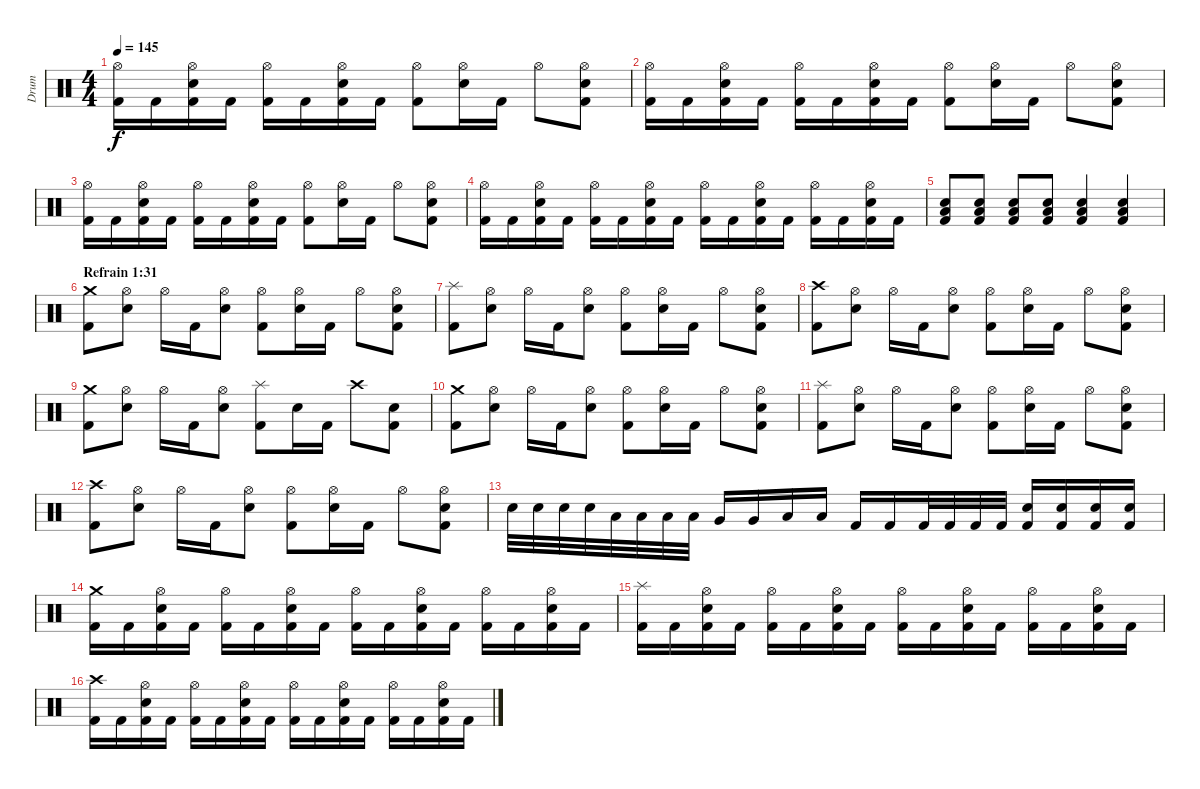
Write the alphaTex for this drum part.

\track ("Drum" "Drum") {instrument percussion}
\staff {score}
\articulation defaults
\ts (4 4)
\tempo 145
\clef neutral
\ks c
("Hi-Hat (open)" "Kick (hit) 2").16{dy f} "Kick (hit) 2".16 ("Hi-Hat (open)" "Snare (hit) 2" "Kick (hit) 2").16 "Kick (hit) 2".16 ("Hi-Hat (open)" "Kick (hit) 2").16 "Kick (hit) 2".16 ("Hi-Hat (open)" "Snare (hit) 2" "Kick (hit) 2").16 "Kick (hit) 2".16 ("Hi-Hat (open)" "Kick (hit) 2").8 ("Hi-Hat (open)" "Snare (hit) 2").16 "Kick (hit) 2".16 "Hi-Hat (open)".8 ("Hi-Hat (open)" "Snare (hit) 2" "Kick (hit) 2").8 |
("Hi-Hat (open)" "Kick (hit) 2").16 "Kick (hit) 2".16 ("Hi-Hat (open)" "Snare (hit) 2" "Kick (hit) 2").16 "Kick (hit) 2".16 ("Hi-Hat (open)" "Kick (hit) 2").16 "Kick (hit) 2".16 ("Hi-Hat (open)" "Snare (hit) 2" "Kick (hit) 2").16 "Kick (hit) 2".16 ("Hi-Hat (open)" "Kick (hit) 2").8 ("Hi-Hat (open)" "Snare (hit) 2").16 "Kick (hit) 2".16 "Hi-Hat (open)".8 ("Hi-Hat (open)" "Snare (hit) 2" "Kick (hit) 2").8 |
("Hi-Hat (open)" "Kick (hit) 2").16 "Kick (hit) 2".16 ("Hi-Hat (open)" "Snare (hit) 2" "Kick (hit) 2").16 "Kick (hit) 2".16 ("Hi-Hat (open)" "Kick (hit) 2").16 "Kick (hit) 2".16 ("Hi-Hat (open)" "Snare (hit) 2" "Kick (hit) 2").16 "Kick (hit) 2".16 ("Hi-Hat (open)" "Kick (hit) 2").8 ("Hi-Hat (open)" "Snare (hit) 2").16 "Kick (hit) 2".16 "Hi-Hat (open)".8 ("Hi-Hat (open)" "Snare (hit) 2" "Kick (hit) 2").8 |
("Hi-Hat (open)" "Kick (hit) 2").16 "Kick (hit) 2".16 ("Hi-Hat (open)" "Snare (hit) 2" "Kick (hit) 2").16 "Kick (hit) 2".16 ("Hi-Hat (open)" "Kick (hit) 2").16 "Kick (hit) 2".16 ("Hi-Hat (open)" "Snare (hit) 2" "Kick (hit) 2").16 "Kick (hit) 2".16 ("Hi-Hat (open)" "Kick (hit) 2").16 "Kick (hit) 2".16 ("Hi-Hat (open)" "Snare (hit) 2" "Kick (hit) 2").16 "Kick (hit) 2".16 ("Hi-Hat (open)" "Kick (hit) 2").16 "Kick (hit) 2".16 ("Hi-Hat (open)" "Snare (hit) 2" "Kick (hit) 2").16 "Kick (hit) 2".16 |
("Low Floor Tom (hit)" "Snare (hit) 2" "Kick (hit) 2").8 ("Low Floor Tom (hit)" "Snare (hit) 2" "Kick (hit) 2").8 ("Low Floor Tom (hit)" "Snare (hit) 2" "Kick (hit) 2").8 ("Low Floor Tom (hit)" "Snare (hit) 2" "Kick (hit) 2").8 ("Low Floor Tom (hit)" "Snare (hit) 2" "Kick (hit) 2").4 ("Low Floor Tom (hit)" "Snare (hit) 2" "Kick (hit) 2").4 |
\section ("" "Refrain 1:31")
("Crash medium (hit)" "Kick (hit) 2").8 ("Hi-Hat (open)" "Snare (hit) 2").8 "Hi-Hat (open)".16 "Kick (hit) 2".16 ("Hi-Hat (open)" "Snare (hit) 2").8 ("Hi-Hat (open)" "Kick (hit) 2").8 ("Hi-Hat (open)" "Snare (hit) 2").16 "Kick (hit) 2".16 "Hi-Hat (open)".8 ("Hi-Hat (open)" "Snare (hit) 2" "Kick (hit) 2").8 |
("Splash (hit)" "Kick (hit) 2").8 ("Hi-Hat (open)" "Snare (hit) 2").8 "Hi-Hat (open)".16 "Kick (hit) 2".16 ("Hi-Hat (open)" "Snare (hit) 2").8 ("Hi-Hat (open)" "Kick (hit) 2").8 ("Hi-Hat (open)" "Snare (hit) 2").16 "Kick (hit) 2".16 "Hi-Hat (open)".8 ("Hi-Hat (open)" "Snare (hit) 2" "Kick (hit) 2").8 |
("Crash high (hit)" "Kick (hit) 2").8 ("Hi-Hat (open)" "Snare (hit) 2").8 "Hi-Hat (open)".16 "Kick (hit) 2".16 ("Hi-Hat (open)" "Snare (hit) 2").8 ("Hi-Hat (open)" "Kick (hit) 2").8 ("Hi-Hat (open)" "Snare (hit) 2").16 "Kick (hit) 2".16 "Hi-Hat (open)".8 ("Hi-Hat (open)" "Snare (hit) 2" "Kick (hit) 2").8 |
("Crash medium (hit)" "Kick (hit) 2").8 ("Hi-Hat (open)" "Snare (hit) 2").8 "Hi-Hat (open)".16 "Kick (hit) 2".16 ("Hi-Hat (open)" "Snare (hit) 2").8 ("Splash (hit)" "Kick (hit) 2").8 "Snare (hit) 2".16 "Kick (hit) 2".16 "Crash high (hit)".8 ("Snare (hit) 2" "Kick (hit) 2").8 |
("Crash medium (hit)" "Kick (hit) 2").8 ("Hi-Hat (open)" "Snare (hit) 2").8 "Hi-Hat (open)".16 "Kick (hit) 2".16 ("Hi-Hat (open)" "Snare (hit) 2").8 ("Hi-Hat (open)" "Kick (hit) 2").8 ("Hi-Hat (open)" "Snare (hit) 2").16 "Kick (hit) 2".16 "Hi-Hat (open)".8 ("Hi-Hat (open)" "Snare (hit) 2" "Kick (hit) 2").8 |
("Splash (hit)" "Kick (hit) 2").8 ("Hi-Hat (open)" "Snare (hit) 2").8 "Hi-Hat (open)".16 "Kick (hit) 2".16 ("Hi-Hat (open)" "Snare (hit) 2").8 ("Hi-Hat (open)" "Kick (hit) 2").8 ("Hi-Hat (open)" "Snare (hit) 2").16 "Kick (hit) 2".16 "Hi-Hat (open)".8 ("Hi-Hat (open)" "Snare (hit) 2" "Kick (hit) 2").8 |
("Crash high (hit)" "Kick (hit) 2").8 ("Hi-Hat (open)" "Snare (hit) 2").8 "Hi-Hat (open)".16 "Kick (hit) 2".16 ("Hi-Hat (open)" "Snare (hit) 2").8 ("Hi-Hat (open)" "Kick (hit) 2").8 ("Hi-Hat (open)" "Snare (hit) 2").16 "Kick (hit) 2".16 "Hi-Hat (open)".8 ("Hi-Hat (open)" "Snare (hit) 2" "Kick (hit) 2").8 |
"Snare (hit) 2".32 "Snare (hit) 2".32 "Snare (hit) 2".32 "Snare (hit) 2".32 "Low Tom (hit)".32 "Low Tom (hit)".32 "Low Tom (hit)".32 "Low Tom (hit)".32 "Very Low Tom (hit)".16 "Very Low Tom (hit)".16 "Low Floor Tom (hit)".16 "Low Floor Tom (hit)".16 "Kick (hit) 2".16 "Kick (hit) 2".16 "Kick (hit) 2".32 "Kick (hit) 2".32 "Kick (hit) 2".32 "Kick (hit) 2".32 ("Snare (hit) 2" "Kick (hit) 2").16 ("Snare (hit) 2" "Kick (hit) 2").16 ("Snare (hit) 2" "Kick (hit) 2").16 ("Snare (hit) 2" "Kick (hit) 2").16 |
("Crash medium (hit)" "Kick (hit) 2").16 "Kick (hit) 2".16 ("Hi-Hat (open)" "Snare (hit) 2" "Kick (hit) 2").16 "Kick (hit) 2".16 ("Hi-Hat (open)" "Kick (hit) 2").16 "Kick (hit) 2".16 ("Hi-Hat (open)" "Snare (hit) 2" "Kick (hit) 2").16 "Kick (hit) 2".16 ("Hi-Hat (open)" "Kick (hit) 2").16 "Kick (hit) 2".16 ("Hi-Hat (open)" "Snare (hit) 2" "Kick (hit) 2").16 "Kick (hit) 2".16 ("Hi-Hat (open)" "Kick (hit) 2").16 "Kick (hit) 2".16 ("Hi-Hat (open)" "Snare (hit) 2" "Kick (hit) 2").16 "Kick (hit) 2".16 |
("Splash (hit)" "Kick (hit) 2").16 "Kick (hit) 2".16 ("Hi-Hat (open)" "Snare (hit) 2" "Kick (hit) 2").16 "Kick (hit) 2".16 ("Hi-Hat (open)" "Kick (hit) 2").16 "Kick (hit) 2".16 ("Hi-Hat (open)" "Snare (hit) 2" "Kick (hit) 2").16 "Kick (hit) 2".16 ("Hi-Hat (open)" "Kick (hit) 2").16 "Kick (hit) 2".16 ("Hi-Hat (open)" "Snare (hit) 2" "Kick (hit) 2").16 "Kick (hit) 2".16 ("Hi-Hat (open)" "Kick (hit) 2").16 "Kick (hit) 2".16 ("Hi-Hat (open)" "Snare (hit) 2" "Kick (hit) 2").16 "Kick (hit) 2".16 |
("Crash high (hit)" "Kick (hit) 2").16 "Kick (hit) 2".16 ("Hi-Hat (open)" "Snare (hit) 2" "Kick (hit) 2").16 "Kick (hit) 2".16 ("Hi-Hat (open)" "Kick (hit) 2").16 "Kick (hit) 2".16 ("Hi-Hat (open)" "Snare (hit) 2" "Kick (hit) 2").16 "Kick (hit) 2".16 ("Hi-Hat (open)" "Kick (hit) 2").16 "Kick (hit) 2".16 ("Hi-Hat (open)" "Snare (hit) 2" "Kick (hit) 2").16 "Kick (hit) 2".16 ("Hi-Hat (open)" "Kick (hit) 2").16 "Kick (hit) 2".16 ("Hi-Hat (open)" "Snare (hit) 2" "Kick (hit) 2").16 "Kick (hit) 2".16
